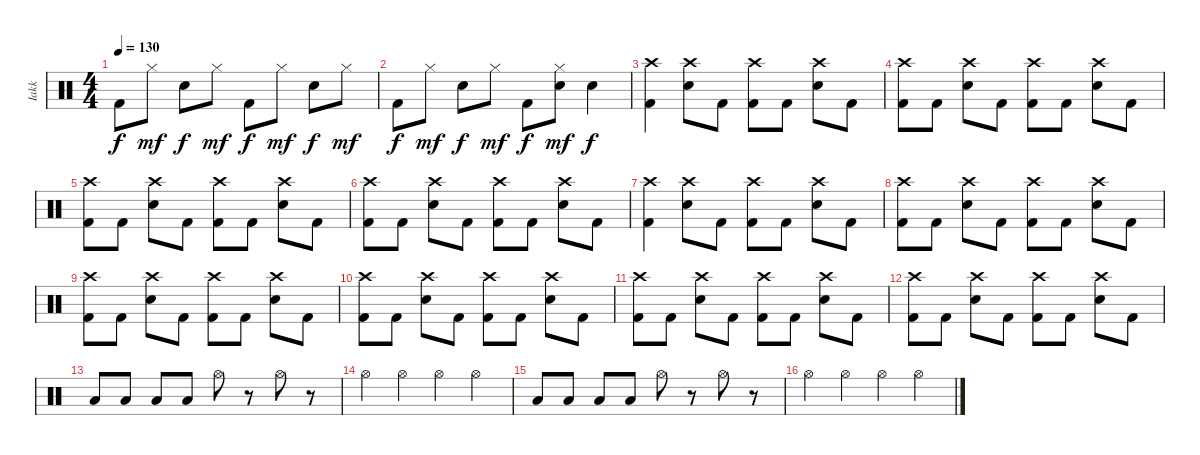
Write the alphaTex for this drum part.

\track ("Iakk" "Iakk") {instrument percussion}
\staff {score}
\articulation defaults
\ts (4 4)
\tempo 130
\clef neutral
\ks c "Kick (hit) 2".8{dy f} "Hi-Hat (closed)".8{dy mf} "Electric Snare (hit)".8{dy f} "Hi-Hat (closed)".8{dy mf} "Kick (hit) 2".8{dy f} "Hi-Hat (closed)".8{dy mf} "Electric Snare (hit)".8{dy f} "Hi-Hat (closed)".8{dy mf}
|
"Kick (hit) 2".8{dy f} "Hi-Hat (closed)".8{dy mf} "Electric Snare (hit)".8{dy f} "Hi-Hat (closed)".8{dy mf} "Kick (hit) 2".8{dy f} ("Hi-Hat (closed)" "Electric Snare (hit)").8{dy mf} "Electric Snare (hit)".4{dy f} |
("Crash high (hit)" "Kick (hit) 2").4 ("Crash high (hit)" "Electric Snare (hit)").8 "Kick (hit) 2".8 ("Crash high (hit)" "Kick (hit) 2").8 "Kick (hit) 2".8 ("Crash high (hit)" "Electric Snare (hit)").8 "Kick (hit) 2".8 |
("Crash high (hit)" "Kick (hit) 2").8 "Kick (hit) 2".8 ("Crash high (hit)" "Electric Snare (hit)").8 "Kick (hit) 2".8 ("Crash high (hit)" "Kick (hit) 2").8 "Kick (hit) 2".8 ("Crash high (hit)" "Electric Snare (hit)").8 "Kick (hit) 2".8 |
("Crash high (hit)" "Kick (hit) 2").8 "Kick (hit) 2".8 ("Crash high (hit)" "Electric Snare (hit)").8 "Kick (hit) 2".8 ("Crash high (hit)" "Kick (hit) 2").8 "Kick (hit) 2".8 ("Crash high (hit)" "Electric Snare (hit)").8 "Kick (hit) 2".8 |
("Crash high (hit)" "Kick (hit) 2").8 "Kick (hit) 2".8 ("Crash high (hit)" "Electric Snare (hit)").8 "Kick (hit) 2".8 ("Crash high (hit)" "Kick (hit) 2").8 "Kick (hit) 2".8 ("Crash high (hit)" "Electric Snare (hit)").8 "Kick (hit) 2".8 |
("Crash high (hit)" "Kick (hit) 2").4 ("Crash high (hit)" "Electric Snare (hit)").8 "Kick (hit) 2".8 ("Crash high (hit)" "Kick (hit) 2").8 "Kick (hit) 2".8 ("Crash high (hit)" "Electric Snare (hit)").8 "Kick (hit) 2".8 |
("Crash high (hit)" "Kick (hit) 2").8 "Kick (hit) 2".8 ("Crash high (hit)" "Electric Snare (hit)").8 "Kick (hit) 2".8 ("Crash high (hit)" "Kick (hit) 2").8 "Kick (hit) 2".8 ("Crash high (hit)" "Electric Snare (hit)").8 "Kick (hit) 2".8 |
("Crash high (hit)" "Kick (hit) 2").8 "Kick (hit) 2".8 ("Crash high (hit)" "Electric Snare (hit)").8 "Kick (hit) 2".8 ("Crash high (hit)" "Kick (hit) 2").8 "Kick (hit) 2".8 ("Crash high (hit)" "Electric Snare (hit)").8 "Kick (hit) 2".8 |
("Crash high (hit)" "Kick (hit) 2").8 "Kick (hit) 2".8 ("Crash high (hit)" "Electric Snare (hit)").8 "Kick (hit) 2".8 ("Crash high (hit)" "Kick (hit) 2").8 "Kick (hit) 2".8 ("Crash high (hit)" "Electric Snare (hit)").8 "Kick (hit) 2".8 |
("Crash high (hit)" "Kick (hit) 2").8 "Kick (hit) 2".8 ("Crash high (hit)" "Electric Snare (hit)").8 "Kick (hit) 2".8 ("Crash high (hit)" "Kick (hit) 2").8 "Kick (hit) 2".8 ("Crash high (hit)" "Electric Snare (hit)").8 "Kick (hit) 2".8 |
("Crash high (hit)" "Kick (hit) 2").8 "Kick (hit) 2".8 ("Crash high (hit)" "Electric Snare (hit)").8 "Kick (hit) 2".8 ("Crash high (hit)" "Kick (hit) 2").8 "Kick (hit) 2".8 ("Crash high (hit)" "Electric Snare (hit)").8 "Kick (hit) 2".8 |
"Low Tom (hit)".8 "Low Tom (hit)".8 "Low Tom (hit)".8 "Low Tom (hit)".8 "Hi-Hat (open)".8 r.8 "Hi-Hat (open)".8 r.8 |
"Hi-Hat (open)".4 "Hi-Hat (open)".4 "Hi-Hat (open)".4 "Hi-Hat (open)".4 |
"Low Tom (hit)".8 "Low Tom (hit)".8 "Low Tom (hit)".8 "Low Tom (hit)".8 "Hi-Hat (open)".8 r.8 "Hi-Hat (open)".8 r.8 |
"Hi-Hat (open)".4 "Hi-Hat (open)".4 "Hi-Hat (open)".4 "Hi-Hat (open)".4
